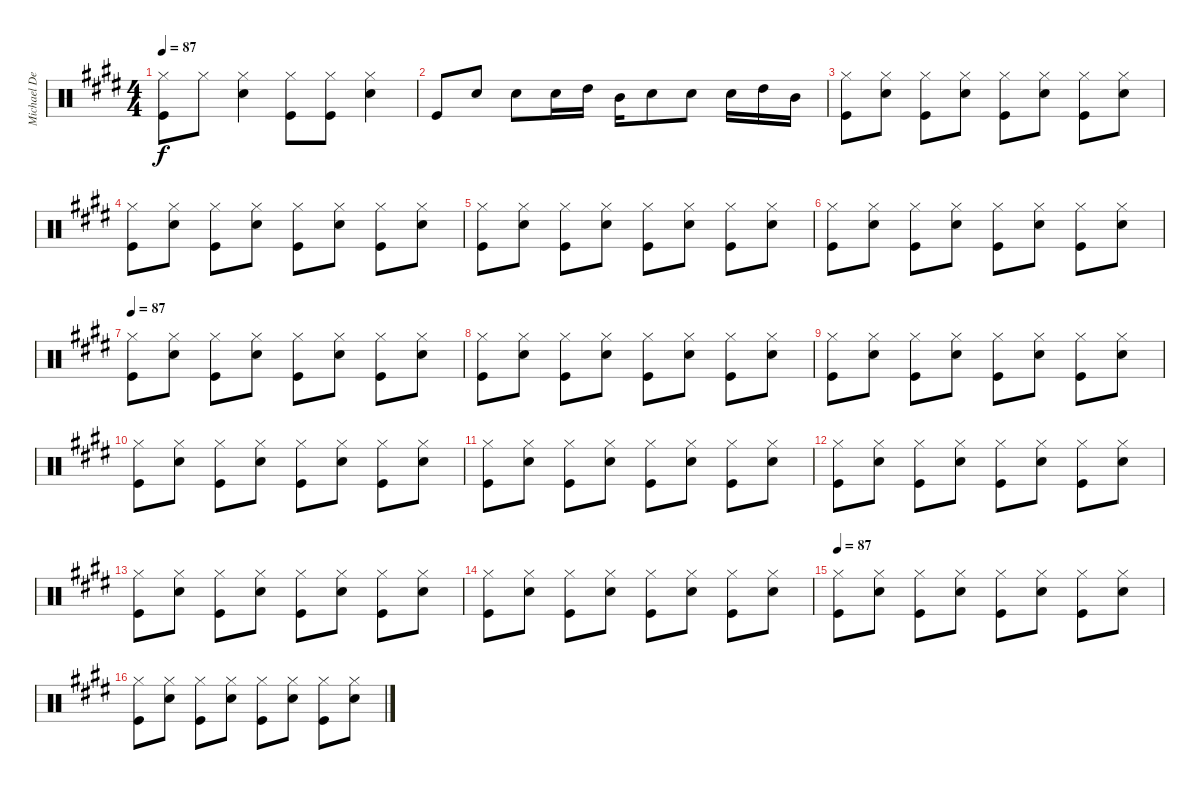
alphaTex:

\track ("Michael Derosier Drums" "Michael De") {instrument percussion}
\staff {score}
\articulation defaults
\ts (4 4)
\tempo 87
\clef neutral
\ks e
("Hi-Hat (closed)" "Kick (hit)").8{dy f} "Hi-Hat (closed)".8 ("Hi-Hat (closed)" "Snare (hit) 2").4 ("Hi-Hat (closed)" "Kick (hit)").8 ("Hi-Hat (closed)" "Kick (hit)").8 ("Hi-Hat (closed)" "Snare (hit) 2").4 |
"Kick (hit)".8 "Snare (hit) 2".8 "Snare (hit) 2".8 "Snare (hit) 2".16 "High Tom (hit)".16 "Mid Tom (hit)".16 "Snare (hit) 2".8 "Snare (hit) 2".8 "Snare (hit) 2".16 "High Tom (hit)".16 "Mid Tom (hit)".16 |
("Hi-Hat (closed)" "Kick (hit)").8 ("Hi-Hat (closed)" "Snare (hit) 2").8 ("Hi-Hat (closed)" "Kick (hit)").8 ("Hi-Hat (closed)" "Snare (hit) 2").8 ("Hi-Hat (closed)" "Kick (hit)").8 ("Hi-Hat (closed)" "Snare (hit) 2").8 ("Hi-Hat (closed)" "Kick (hit)").8 ("Hi-Hat (closed)" "Snare (hit) 2").8 |
("Hi-Hat (closed)" "Kick (hit)").8 ("Hi-Hat (closed)" "Snare (hit) 2").8 ("Hi-Hat (closed)" "Kick (hit)").8 ("Hi-Hat (closed)" "Snare (hit) 2").8 ("Hi-Hat (closed)" "Kick (hit)").8 ("Hi-Hat (closed)" "Snare (hit) 2").8 ("Hi-Hat (closed)" "Kick (hit)").8 ("Hi-Hat (closed)" "Snare (hit) 2").8 |
("Hi-Hat (closed)" "Kick (hit)").8 ("Hi-Hat (closed)" "Snare (hit) 2").8 ("Hi-Hat (closed)" "Kick (hit)").8 ("Hi-Hat (closed)" "Snare (hit) 2").8 ("Hi-Hat (closed)" "Kick (hit)").8 ("Hi-Hat (closed)" "Snare (hit) 2").8 ("Hi-Hat (closed)" "Kick (hit)").8 ("Hi-Hat (closed)" "Snare (hit) 2").8 |
("Hi-Hat (closed)" "Kick (hit)").8 ("Hi-Hat (closed)" "Snare (hit) 2").8 ("Hi-Hat (closed)" "Kick (hit)").8 ("Hi-Hat (closed)" "Snare (hit) 2").8 ("Hi-Hat (closed)" "Kick (hit)").8 ("Hi-Hat (closed)" "Snare (hit) 2").8 ("Hi-Hat (closed)" "Kick (hit)").8 ("Hi-Hat (closed)" "Snare (hit) 2").8 |
\tempo 87
("Hi-Hat (closed)" "Kick (hit)").8 ("Hi-Hat (closed)" "Snare (hit) 2").8 ("Hi-Hat (closed)" "Kick (hit)").8 ("Hi-Hat (closed)" "Snare (hit) 2").8 ("Hi-Hat (closed)" "Kick (hit)").8 ("Hi-Hat (closed)" "Snare (hit) 2").8 ("Hi-Hat (closed)" "Kick (hit)").8 ("Hi-Hat (closed)" "Snare (hit) 2").8 |
("Hi-Hat (closed)" "Kick (hit)").8 ("Hi-Hat (closed)" "Snare (hit) 2").8 ("Hi-Hat (closed)" "Kick (hit)").8 ("Hi-Hat (closed)" "Snare (hit) 2").8 ("Hi-Hat (closed)" "Kick (hit)").8 ("Hi-Hat (closed)" "Snare (hit) 2").8 ("Hi-Hat (closed)" "Kick (hit)").8 ("Hi-Hat (closed)" "Snare (hit) 2").8 |
("Hi-Hat (closed)" "Kick (hit)").8 ("Hi-Hat (closed)" "Snare (hit) 2").8 ("Hi-Hat (closed)" "Kick (hit)").8 ("Hi-Hat (closed)" "Snare (hit) 2").8 ("Hi-Hat (closed)" "Kick (hit)").8 ("Hi-Hat (closed)" "Snare (hit) 2").8 ("Hi-Hat (closed)" "Kick (hit)").8 ("Hi-Hat (closed)" "Snare (hit) 2").8 |
("Hi-Hat (closed)" "Kick (hit)").8 ("Hi-Hat (closed)" "Snare (hit) 2").8 ("Hi-Hat (closed)" "Kick (hit)").8 ("Hi-Hat (closed)" "Snare (hit) 2").8 ("Hi-Hat (closed)" "Kick (hit)").8 ("Hi-Hat (closed)" "Snare (hit) 2").8 ("Hi-Hat (closed)" "Kick (hit)").8 ("Hi-Hat (closed)" "Snare (hit) 2").8 |
("Hi-Hat (closed)" "Kick (hit)").8 ("Hi-Hat (closed)" "Snare (hit) 2").8 ("Hi-Hat (closed)" "Kick (hit)").8 ("Hi-Hat (closed)" "Snare (hit) 2").8 ("Hi-Hat (closed)" "Kick (hit)").8 ("Hi-Hat (closed)" "Snare (hit) 2").8 ("Hi-Hat (closed)" "Kick (hit)").8 ("Hi-Hat (closed)" "Snare (hit) 2").8 |
("Hi-Hat (closed)" "Kick (hit)").8 ("Hi-Hat (closed)" "Snare (hit) 2").8 ("Hi-Hat (closed)" "Kick (hit)").8 ("Hi-Hat (closed)" "Snare (hit) 2").8 ("Hi-Hat (closed)" "Kick (hit)").8 ("Hi-Hat (closed)" "Snare (hit) 2").8 ("Hi-Hat (closed)" "Kick (hit)").8 ("Hi-Hat (closed)" "Snare (hit) 2").8 |
("Hi-Hat (closed)" "Kick (hit)").8 ("Hi-Hat (closed)" "Snare (hit) 2").8 ("Hi-Hat (closed)" "Kick (hit)").8 ("Hi-Hat (closed)" "Snare (hit) 2").8 ("Hi-Hat (closed)" "Kick (hit)").8 ("Hi-Hat (closed)" "Snare (hit) 2").8 ("Hi-Hat (closed)" "Kick (hit)").8 ("Hi-Hat (closed)" "Snare (hit) 2").8 |
("Hi-Hat (closed)" "Kick (hit)").8 ("Hi-Hat (closed)" "Snare (hit) 2").8 ("Hi-Hat (closed)" "Kick (hit)").8 ("Hi-Hat (closed)" "Snare (hit) 2").8 ("Hi-Hat (closed)" "Kick (hit)").8 ("Hi-Hat (closed)" "Snare (hit) 2").8 ("Hi-Hat (closed)" "Kick (hit)").8 ("Hi-Hat (closed)" "Snare (hit) 2").8 |
\tempo 87
("Hi-Hat (closed)" "Kick (hit)").8 ("Hi-Hat (closed)" "Snare (hit) 2").8 ("Hi-Hat (closed)" "Kick (hit)").8 ("Hi-Hat (closed)" "Snare (hit) 2").8 ("Hi-Hat (closed)" "Kick (hit)").8 ("Hi-Hat (closed)" "Snare (hit) 2").8 ("Hi-Hat (closed)" "Kick (hit)").8 ("Hi-Hat (closed)" "Snare (hit) 2").8 |
("Hi-Hat (closed)" "Kick (hit)").8 ("Hi-Hat (closed)" "Snare (hit) 2").8 ("Hi-Hat (closed)" "Kick (hit)").8 ("Hi-Hat (closed)" "Snare (hit) 2").8 ("Hi-Hat (closed)" "Kick (hit)").8 ("Hi-Hat (closed)" "Snare (hit) 2").8 ("Hi-Hat (closed)" "Kick (hit)").8 ("Hi-Hat (closed)" "Snare (hit) 2").8
